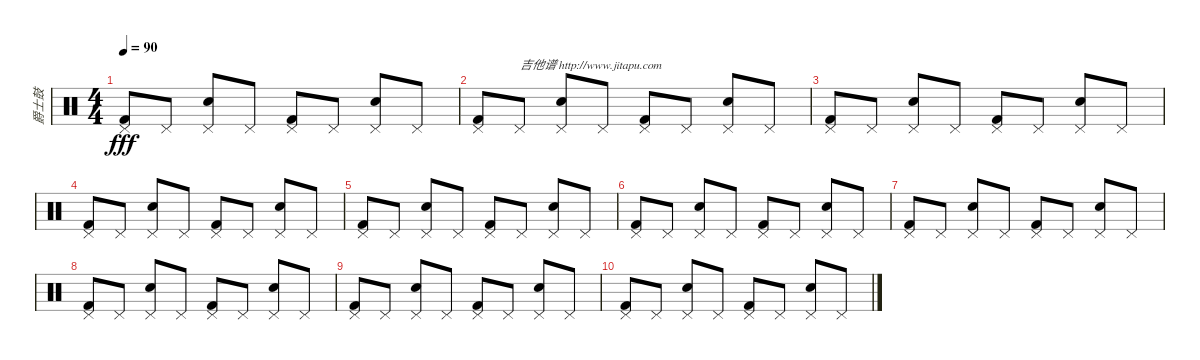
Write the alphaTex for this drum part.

\track ("爵士鼓" "爵士鼓") {instrument percussion}
\staff {score}
\articulation defaults
\ts (4 4)
\tempo 90
\clef neutral
\ks c
("Pedal Hi-Hat (hit)" "Kick (hit) 2").8{dy fff} "Pedal Hi-Hat (hit)".8 ("Pedal Hi-Hat (hit)" "Electric Snare (hit)").8 "Pedal Hi-Hat (hit)".8 ("Pedal Hi-Hat (hit)" "Kick (hit) 2").8 "Pedal Hi-Hat (hit)".8 ("Pedal Hi-Hat (hit)" "Electric Snare (hit)").8 "Pedal Hi-Hat (hit)".8 |
("Pedal Hi-Hat (hit)" "Kick (hit) 2").8 "Pedal Hi-Hat (hit)".8{txt "吉他谱 http://www.jitapu.com"} ("Pedal Hi-Hat (hit)" "Electric Snare (hit)").8 "Pedal Hi-Hat (hit)".8 ("Pedal Hi-Hat (hit)" "Kick (hit) 2").8 "Pedal Hi-Hat (hit)".8 ("Pedal Hi-Hat (hit)" "Electric Snare (hit)").8 "Pedal Hi-Hat (hit)".8 |
("Pedal Hi-Hat (hit)" "Kick (hit) 2").8 "Pedal Hi-Hat (hit)".8 ("Pedal Hi-Hat (hit)" "Electric Snare (hit)").8 "Pedal Hi-Hat (hit)".8 ("Pedal Hi-Hat (hit)" "Kick (hit) 2").8 "Pedal Hi-Hat (hit)".8 ("Pedal Hi-Hat (hit)" "Electric Snare (hit)").8 "Pedal Hi-Hat (hit)".8 |
("Pedal Hi-Hat (hit)" "Kick (hit) 2").8 "Pedal Hi-Hat (hit)".8 ("Pedal Hi-Hat (hit)" "Electric Snare (hit)").8 "Pedal Hi-Hat (hit)".8 ("Pedal Hi-Hat (hit)" "Kick (hit) 2").8 "Pedal Hi-Hat (hit)".8 ("Pedal Hi-Hat (hit)" "Electric Snare (hit)").8 "Pedal Hi-Hat (hit)".8 |
("Pedal Hi-Hat (hit)" "Kick (hit) 2").8 "Pedal Hi-Hat (hit)".8 ("Pedal Hi-Hat (hit)" "Electric Snare (hit)").8 "Pedal Hi-Hat (hit)".8 ("Pedal Hi-Hat (hit)" "Kick (hit) 2").8 "Pedal Hi-Hat (hit)".8 ("Pedal Hi-Hat (hit)" "Electric Snare (hit)").8 "Pedal Hi-Hat (hit)".8 |
("Pedal Hi-Hat (hit)" "Kick (hit) 2").8 "Pedal Hi-Hat (hit)".8 ("Pedal Hi-Hat (hit)" "Electric Snare (hit)").8 "Pedal Hi-Hat (hit)".8 ("Pedal Hi-Hat (hit)" "Kick (hit) 2").8 "Pedal Hi-Hat (hit)".8 ("Pedal Hi-Hat (hit)" "Electric Snare (hit)").8 "Pedal Hi-Hat (hit)".8 |
("Pedal Hi-Hat (hit)" "Kick (hit) 2").8 "Pedal Hi-Hat (hit)".8 ("Pedal Hi-Hat (hit)" "Electric Snare (hit)").8 "Pedal Hi-Hat (hit)".8 ("Pedal Hi-Hat (hit)" "Kick (hit) 2").8 "Pedal Hi-Hat (hit)".8 ("Pedal Hi-Hat (hit)" "Electric Snare (hit)").8 "Pedal Hi-Hat (hit)".8 |
("Pedal Hi-Hat (hit)" "Kick (hit) 2").8 "Pedal Hi-Hat (hit)".8 ("Pedal Hi-Hat (hit)" "Electric Snare (hit)").8 "Pedal Hi-Hat (hit)".8 ("Pedal Hi-Hat (hit)" "Kick (hit) 2").8 "Pedal Hi-Hat (hit)".8 ("Pedal Hi-Hat (hit)" "Electric Snare (hit)").8 "Pedal Hi-Hat (hit)".8 |
("Pedal Hi-Hat (hit)" "Kick (hit) 2").8 "Pedal Hi-Hat (hit)".8 ("Pedal Hi-Hat (hit)" "Electric Snare (hit)").8 "Pedal Hi-Hat (hit)".8 ("Pedal Hi-Hat (hit)" "Kick (hit) 2").8 "Pedal Hi-Hat (hit)".8 ("Pedal Hi-Hat (hit)" "Electric Snare (hit)").8 "Pedal Hi-Hat (hit)".8 |
("Pedal Hi-Hat (hit)" "Kick (hit) 2").8 "Pedal Hi-Hat (hit)".8 ("Pedal Hi-Hat (hit)" "Electric Snare (hit)").8 "Pedal Hi-Hat (hit)".8 ("Pedal Hi-Hat (hit)" "Kick (hit) 2").8 "Pedal Hi-Hat (hit)".8 ("Pedal Hi-Hat (hit)" "Electric Snare (hit)").8 "Pedal Hi-Hat (hit)".8
